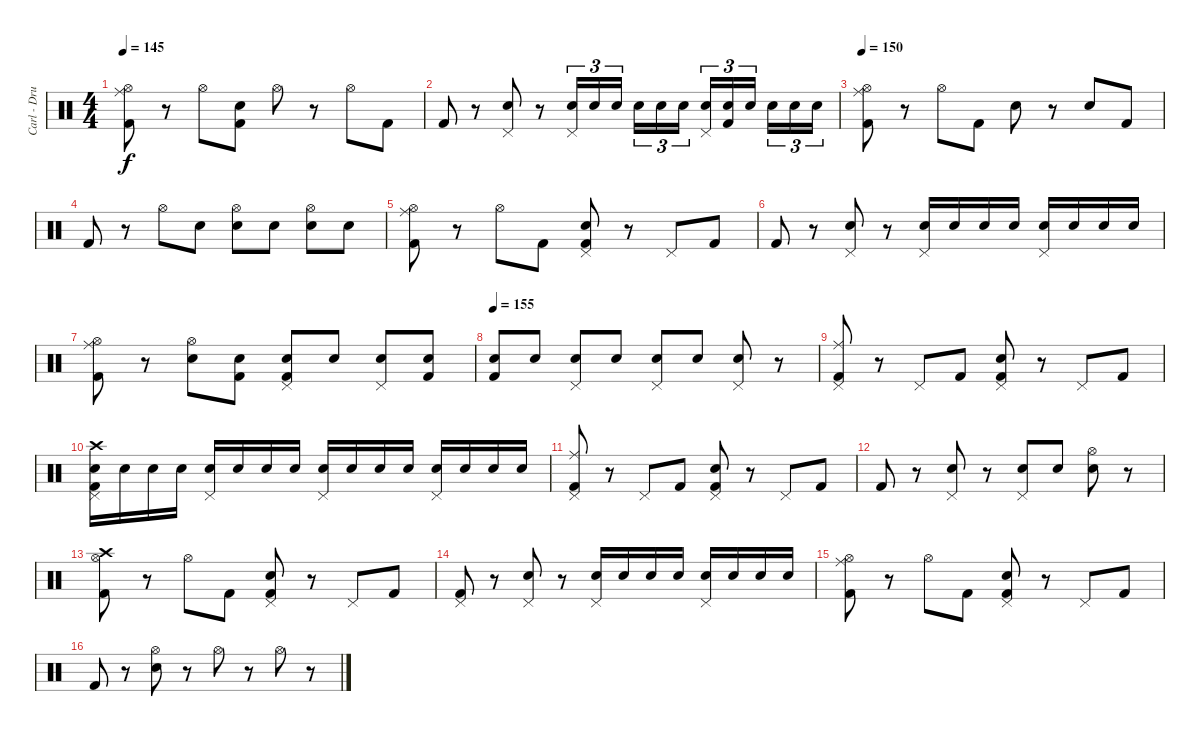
\track ("Carl - Drums" "Carl - Dru") {instrument percussion}
\staff {score}
\articulation defaults
\ts (4 4)
\tempo 145
\clef neutral
\ks c
("Hi-Hat (open)" "Kick (hit) 2" "Ride (middle)").8{dy f} r.8 "Hi-Hat (open)".8 ("Electric Snare (hit)" "Kick (hit) 2").8 "Hi-Hat (open)".8 r.8 "Hi-Hat (open)".8 "Kick (hit) 2".8 |
"Kick (hit) 2".8 r.8 ("Electric Snare (hit)" "Pedal Hi-Hat (hit)").8 r.8 ("Electric Snare (hit)" "Pedal Hi-Hat (hit)").16{tu (3 2)} "Electric Snare (hit)".16{tu (3 2)} "Electric Snare (hit)".16{tu (3 2)} "Electric Snare (hit)".16{tu (3 2)} "Electric Snare (hit)".16{tu (3 2)} "Electric Snare (hit)".16{tu (3 2)} ("Electric Snare (hit)" "Pedal Hi-Hat (hit)").16{tu (3 2)} ("Electric Snare (hit)" "Kick (hit) 2").16{tu (3 2)} "Electric Snare (hit)".16{tu (3 2)} "Electric Snare (hit)".16{tu (3 2)} "Electric Snare (hit)".16{tu (3 2)} "Electric Snare (hit)".16{tu (3 2)} |
\tempo 150
("Hi-Hat (open)" "Kick (hit) 2" "Ride (middle)").8 r.8 "Hi-Hat (open)".8 "Kick (hit) 2".8 "Electric Snare (hit)".8 r.8 "Electric Snare (hit)".8 "Kick (hit) 2".8 |
"Kick (hit) 2".8 r.8 "Hi-Hat (open)".8 "Electric Snare (hit)".8 ("Electric Snare (hit)" "Hi-Hat (open)").8 "Electric Snare (hit)".8 ("Electric Snare (hit)" "Hi-Hat (open)").8 "Electric Snare (hit)".8 |
("Hi-Hat (open)" "Kick (hit) 2" "Ride (middle)").8 r.8 "Hi-Hat (open)".8 "Kick (hit) 2".8 ("Electric Snare (hit)" "Pedal Hi-Hat (hit)" "Kick (hit) 2").8 r.8 "Pedal Hi-Hat (hit)".8 "Kick (hit) 2".8 |
"Kick (hit) 2".8 r.8 ("Electric Snare (hit)" "Pedal Hi-Hat (hit)").8 r.8 ("Electric Snare (hit)" "Pedal Hi-Hat (hit)").16 "Electric Snare (hit)".16 "Electric Snare (hit)".16 "Electric Snare (hit)".16 ("Electric Snare (hit)" "Pedal Hi-Hat (hit)").16 "Electric Snare (hit)".16 "Electric Snare (hit)".16 "Electric Snare (hit)".16 |
("Hi-Hat (open)" "Kick (hit) 2" "Ride (middle)").8 r.8 ("Electric Snare (hit)" "Hi-Hat (open)").8 ("Electric Snare (hit)" "Kick (hit) 2").8 ("Electric Snare (hit)" "Pedal Hi-Hat (hit)" "Kick (hit) 2").8 "Electric Snare (hit)".8 ("Electric Snare (hit)" "Pedal Hi-Hat (hit)").8 ("Electric Snare (hit)" "Kick (hit) 2").8 |
\tempo 154
\tempo 155
("Electric Snare (hit)" "Kick (hit) 2").8 "Electric Snare (hit)".8 ("Electric Snare (hit)" "Pedal Hi-Hat (hit)").8 "Electric Snare (hit)".8 ("Electric Snare (hit)" "Pedal Hi-Hat (hit)").8 "Electric Snare (hit)".8 ("Electric Snare (hit)" "Pedal Hi-Hat (hit)").8 r.8 |
("Pedal Hi-Hat (hit)" "Kick (hit) 2" "Ride (middle)").8 r.8 "Pedal Hi-Hat (hit)".8 "Kick (hit) 2".8 ("Electric Snare (hit)" "Pedal Hi-Hat (hit)" "Kick (hit) 2").8 r.8 "Pedal Hi-Hat (hit)".8 "Kick (hit) 2".8 |
("Electric Snare (hit)" "Pedal Hi-Hat (hit)" "Kick (hit) 2" "Crash high (hit)").16 "Electric Snare (hit)".16 "Electric Snare (hit)".16 "Electric Snare (hit)".16 ("Electric Snare (hit)" "Pedal Hi-Hat (hit)").16 "Electric Snare (hit)".16 "Electric Snare (hit)".16 "Electric Snare (hit)".16 ("Electric Snare (hit)" "Pedal Hi-Hat (hit)").16 "Electric Snare (hit)".16 "Electric Snare (hit)".16 "Electric Snare (hit)".16 ("Electric Snare (hit)" "Pedal Hi-Hat (hit)").16 "Electric Snare (hit)".16 "Electric Snare (hit)".16 "Electric Snare (hit)".16 |
("Pedal Hi-Hat (hit)" "Ride (middle)" "Kick (hit) 2").8 r.8 "Pedal Hi-Hat (hit)".8 "Kick (hit) 2".8 ("Electric Snare (hit)" "Pedal Hi-Hat (hit)" "Kick (hit) 2").8 r.8 "Pedal Hi-Hat (hit)".8 "Kick (hit) 2".8 |
"Kick (hit) 2".8 r.8 ("Electric Snare (hit)" "Pedal Hi-Hat (hit)").8 r.8 ("Electric Snare (hit)" "Pedal Hi-Hat (hit)").8 "Electric Snare (hit)".8 ("Electric Snare (hit)" "Hi-Hat (open)").8 r.8 |
("Hi-Hat (open)" "Kick (hit) 2" "Crash high (hit)").8 r.8 "Hi-Hat (open)".8 "Kick (hit) 2".8 ("Electric Snare (hit)" "Pedal Hi-Hat (hit)" "Kick (hit) 2").8 r.8 "Pedal Hi-Hat (hit)".8 "Kick (hit) 2".8 |
("Pedal Hi-Hat (hit)" "Kick (hit) 2").8 r.8 ("Electric Snare (hit)" "Pedal Hi-Hat (hit)").8 r.8 ("Electric Snare (hit)" "Pedal Hi-Hat (hit)").16 "Electric Snare (hit)".16 "Electric Snare (hit)".16 "Electric Snare (hit)".16 ("Electric Snare (hit)" "Pedal Hi-Hat (hit)").16 "Electric Snare (hit)".16 "Electric Snare (hit)".16 "Electric Snare (hit)".16 |
("Hi-Hat (open)" "Kick (hit) 2" "Ride (middle)").8 r.8 "Hi-Hat (open)".8 "Kick (hit) 2".8 ("Electric Snare (hit)" "Pedal Hi-Hat (hit)" "Kick (hit) 2").8 r.8 "Pedal Hi-Hat (hit)".8 "Kick (hit) 2".8 |
"Kick (hit) 2".8 r.8 ("Electric Snare (hit)" "Hi-Hat (open)").8 r.8 "Hi-Hat (open)".8 r.8 "Hi-Hat (open)".8 r.8
